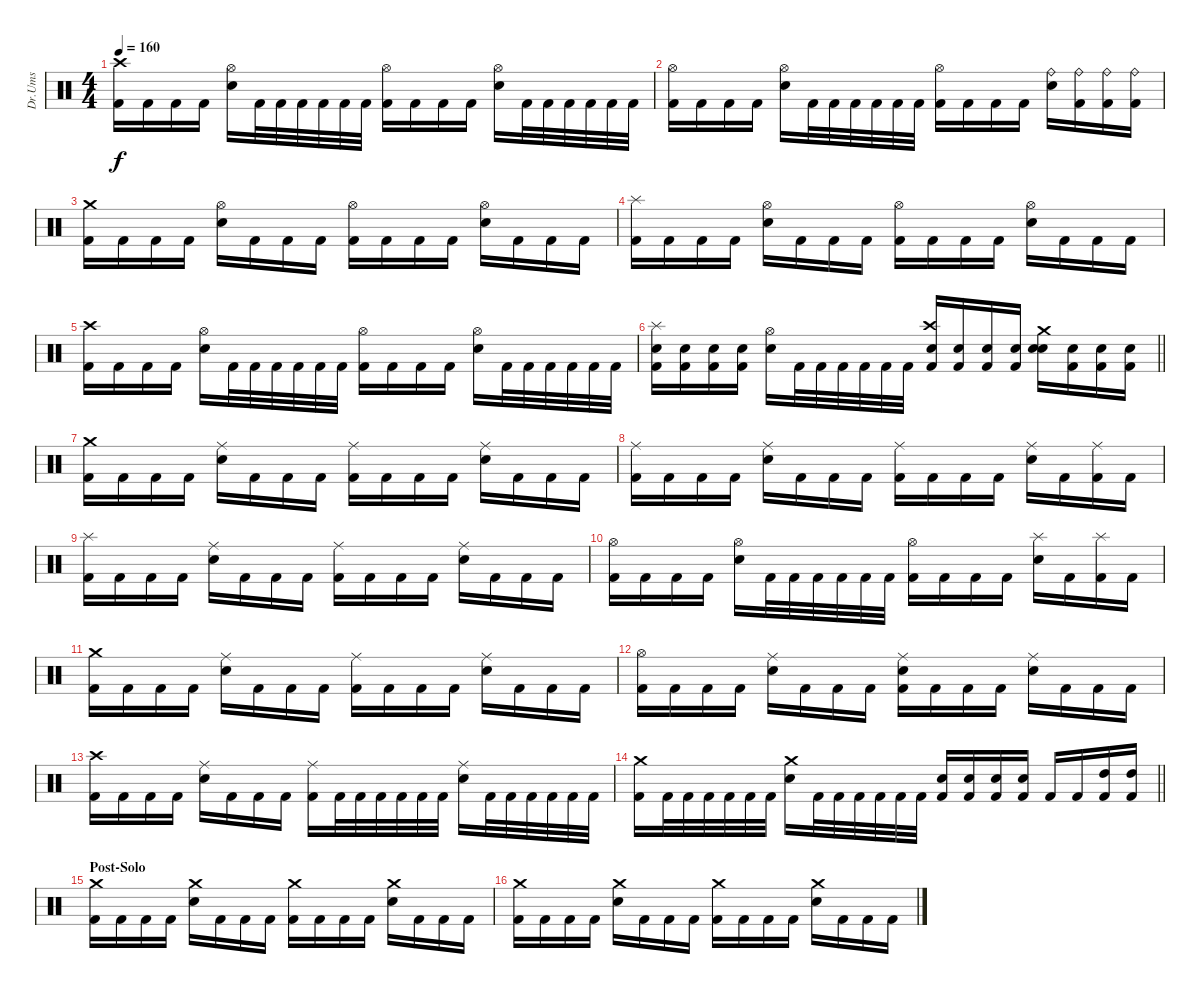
\track ("Dr.Ums" "Dr.Ums") {instrument percussion}
\staff {score}
\articulation defaults
\ts (4 4)
\tempo 160
\clef neutral
\ks c
("Kick (hit) 2" "Crash high (hit)").16{dy f} "Kick (hit) 2".16 "Kick (hit) 2".16 "Kick (hit) 2".16 ("Snare (hit) 2" "Hi-Hat (open)").16 "Kick (hit) 2".32 "Kick (hit) 2".32 "Kick (hit) 2".32 "Kick (hit) 2".32 "Kick (hit) 2".32 "Kick (hit) 2".32 ("Kick (hit) 2" "Hi-Hat (open)").16 "Kick (hit) 2".16 "Kick (hit) 2".16 "Kick (hit) 2".16 ("Snare (hit) 2" "Hi-Hat (open)").16 "Kick (hit) 2".32 "Kick (hit) 2".32 "Kick (hit) 2".32 "Kick (hit) 2".32 "Kick (hit) 2".32 "Kick (hit) 2".32 |
("Kick (hit) 2" "Hi-Hat (open)").16 "Kick (hit) 2".16 "Kick (hit) 2".16 "Kick (hit) 2".16 ("Snare (hit) 2" "Hi-Hat (open)").16 "Kick (hit) 2".32 "Kick (hit) 2".32 "Kick (hit) 2".32 "Kick (hit) 2".32 "Kick (hit) 2".32 "Kick (hit) 2".32 ("Kick (hit) 2" "Hi-Hat (open)").16 "Kick (hit) 2".16 "Kick (hit) 2".16 "Kick (hit) 2".16 ("Snare (hit) 2" "Ride (bell)").16 ("Kick (hit) 2" "Ride (bell)").16 ("Kick (hit) 2" "Ride (bell)").16 ("Kick (hit) 2" "Ride (bell)").16 |
("Kick (hit) 2" "Crash medium (hit)").16 "Kick (hit) 2".16 "Kick (hit) 2".16 "Kick (hit) 2".16 ("Snare (hit) 2" "Hi-Hat (open)").16 "Kick (hit) 2".16 "Kick (hit) 2".16 "Kick (hit) 2".16 ("Kick (hit) 2" "Hi-Hat (open)").16 "Kick (hit) 2".16 "Kick (hit) 2".16 "Kick (hit) 2".16 ("Snare (hit) 2" "Hi-Hat (open)").16 "Kick (hit) 2".16 "Kick (hit) 2".16 "Kick (hit) 2".16 |
("Kick (hit) 2" "Splash (hit)").16 "Kick (hit) 2".16 "Kick (hit) 2".16 "Kick (hit) 2".16 ("Snare (hit) 2" "Hi-Hat (open)").16 "Kick (hit) 2".16 "Kick (hit) 2".16 "Kick (hit) 2".16 ("Kick (hit) 2" "Hi-Hat (open)").16 "Kick (hit) 2".16 "Kick (hit) 2".16 "Kick (hit) 2".16 ("Snare (hit) 2" "Hi-Hat (open)").16 "Kick (hit) 2".16 "Kick (hit) 2".16 "Kick (hit) 2".16 |
("Kick (hit) 2" "Crash high (hit)").16 "Kick (hit) 2".16 "Kick (hit) 2".16 "Kick (hit) 2".16 ("Snare (hit) 2" "Hi-Hat (open)").16 "Kick (hit) 2".32 "Kick (hit) 2".32 "Kick (hit) 2".32 "Kick (hit) 2".32 "Kick (hit) 2".32 "Kick (hit) 2".32 ("Kick (hit) 2" "Hi-Hat (open)").16 "Kick (hit) 2".16 "Kick (hit) 2".16 "Kick (hit) 2".16 ("Snare (hit) 2" "Hi-Hat (open)").16 "Kick (hit) 2".32 "Kick (hit) 2".32 "Kick (hit) 2".32 "Kick (hit) 2".32 "Kick (hit) 2".32 "Kick (hit) 2".32 |
\barLineRight lightlight
("Kick (hit) 2" "Splash (hit)" "Snare (hit) 2").16 ("Kick (hit) 2" "Snare (hit) 2").16 ("Kick (hit) 2" "Snare (hit) 2").16 ("Kick (hit) 2" "Snare (hit) 2").16 ("Snare (hit) 2" "Hi-Hat (open)").16 "Kick (hit) 2".32 "Kick (hit) 2".32 "Kick (hit) 2".32 "Kick (hit) 2".32 "Kick (hit) 2".32 "Kick (hit) 2".32 ("Kick (hit) 2" "Snare (hit) 2" "Crash high (hit)").16 ("Kick (hit) 2" "Snare (hit) 2").16 ("Kick (hit) 2" "Snare (hit) 2").16 ("Kick (hit) 2" "Snare (hit) 2").16 ("Snare (hit) 2" "Snare (hit) 2" "Crash medium (hit)").16 ("Kick (hit) 2" "Snare (hit) 2").16 ("Kick (hit) 2" "Snare (hit) 2").16 ("Kick (hit) 2" "Snare (hit) 2").16 |
("Kick (hit) 2" "Crash medium (hit)").16 "Kick (hit) 2".16 "Kick (hit) 2".16 "Kick (hit) 2".16 ("Snare (hit) 2" "Ride (middle)").16 "Kick (hit) 2".16 "Kick (hit) 2".16 "Kick (hit) 2".16 ("Kick (hit) 2" "Ride (middle)").16 "Kick (hit) 2".16 "Kick (hit) 2".16 "Kick (hit) 2".16 ("Snare (hit) 2" "Ride (middle)").16 "Kick (hit) 2".16 "Kick (hit) 2".16 "Kick (hit) 2".16 |
("Kick (hit) 2" "Ride (middle)").16 "Kick (hit) 2".16 "Kick (hit) 2".16 "Kick (hit) 2".16 ("Snare (hit) 2" "Ride (middle)").16 "Kick (hit) 2".16 "Kick (hit) 2".16 "Kick (hit) 2".16 ("Kick (hit) 2" "Ride (middle)").16 "Kick (hit) 2".16 "Kick (hit) 2".16 "Kick (hit) 2".16 ("Snare (hit) 2" "Ride (middle)").16 "Kick (hit) 2".16 ("Kick (hit) 2" "Ride (middle)").16 "Kick (hit) 2".16 |
("Kick (hit) 2" "Splash (hit)").16 "Kick (hit) 2".16 "Kick (hit) 2".16 "Kick (hit) 2".16 ("Snare (hit) 2" "Ride (middle)").16 "Kick (hit) 2".16 "Kick (hit) 2".16 "Kick (hit) 2".16 ("Kick (hit) 2" "Ride (middle)").16 "Kick (hit) 2".16 "Kick (hit) 2".16 "Kick (hit) 2".16 ("Snare (hit) 2" "Ride (middle)").16 "Kick (hit) 2".16 "Kick (hit) 2".16 "Kick (hit) 2".16 |
("Kick (hit) 2" "Hi-Hat (open)").16 "Kick (hit) 2".16 "Kick (hit) 2".16 "Kick (hit) 2".16 ("Snare (hit) 2" "Hi-Hat (open)").16 "Kick (hit) 2".32 "Kick (hit) 2".32 "Kick (hit) 2".32 "Kick (hit) 2".32 "Kick (hit) 2".32 "Kick (hit) 2".32 ("Kick (hit) 2" "Hi-Hat (open)").16 "Kick (hit) 2".16 "Kick (hit) 2".16 "Kick (hit) 2".16 ("Snare (hit) 2" "Splash (hit)").16 "Kick (hit) 2".16 ("Kick (hit) 2" "Splash (hit)").16 "Kick (hit) 2".16 |
("Kick (hit) 2" "Crash medium (hit)").16 "Kick (hit) 2".16 "Kick (hit) 2".16 "Kick (hit) 2".16 ("Snare (hit) 2" "Ride (middle)").16 "Kick (hit) 2".16 "Kick (hit) 2".16 "Kick (hit) 2".16 ("Kick (hit) 2" "Ride (middle)").16 "Kick (hit) 2".16 "Kick (hit) 2".16 "Kick (hit) 2".16 ("Snare (hit) 2" "Ride (middle)").16 "Kick (hit) 2".16 "Kick (hit) 2".16 "Kick (hit) 2".16 |
("Kick (hit) 2" "Hi-Hat (open)").16 "Kick (hit) 2".16 "Kick (hit) 2".16 "Kick (hit) 2".16 ("Snare (hit) 2" "Ride (middle)").16 "Kick (hit) 2".16 "Kick (hit) 2".16 "Kick (hit) 2".16 ("Kick (hit) 2" "Ride (middle)" "Snare (hit)").16 "Kick (hit) 2".16 "Kick (hit) 2".16 "Kick (hit) 2".16 ("Snare (hit) 2" "Ride (middle)").16 "Kick (hit) 2".16 "Kick (hit) 2".16 "Kick (hit) 2".16 |
("Kick (hit) 2" "Crash high (hit)").16 "Kick (hit) 2".16 "Kick (hit) 2".16 "Kick (hit) 2".16 ("Snare (hit) 2" "Ride (middle)").16 "Kick (hit) 2".16 "Kick (hit) 2".16 "Kick (hit) 2".16 ("Kick (hit) 2" "Ride (middle)").16 "Kick (hit) 2".32 "Kick (hit) 2".32 "Kick (hit) 2".32 "Kick (hit) 2".32 "Kick (hit) 2".32 "Kick (hit) 2".32 ("Snare (hit) 2" "Ride (middle)").16 "Kick (hit) 2".32 "Kick (hit) 2".32 "Kick (hit) 2".32 "Kick (hit) 2".32 "Kick (hit) 2".32 "Kick (hit) 2".32 |
\barLineRight lightlight
("Kick (hit) 2" "Crash medium (hit)").16 "Kick (hit) 2".32 "Kick (hit) 2".32 "Kick (hit) 2".32 "Kick (hit) 2".32 "Kick (hit) 2".32 "Kick (hit) 2".32 ("Snare (hit) 2" "Crash medium (hit)").16 "Kick (hit) 2".32 "Kick (hit) 2".32 "Kick (hit) 2".32 "Kick (hit) 2".32 "Kick (hit) 2".32 "Kick (hit) 2".32 ("Snare (hit) 2" "Kick (hit) 2").16 ("Snare (hit) 2" "Kick (hit) 2").16 ("Snare (hit) 2" "Kick (hit) 2").16 ("Snare (hit) 2" "Kick (hit) 2").16 "Kick (hit) 2".16 "Kick (hit) 2".16 ("High Tom (hit)" "Kick (hit) 2").16 ("High Tom (hit)" "Kick (hit) 2").16 |
\section ("" "Post-Solo")
("Kick (hit) 2" "Crash medium (hit)").16 "Kick (hit) 2".16 "Kick (hit) 2".16 "Kick (hit) 2".16 ("Snare (hit) 2" "Crash medium (hit)").16 "Kick (hit) 2".16 "Kick (hit) 2".16 "Kick (hit) 2".16 ("Kick (hit) 2" "Crash medium (hit)").16 "Kick (hit) 2".16 "Kick (hit) 2".16 "Kick (hit) 2".16 ("Snare (hit) 2" "Crash medium (hit)").16 "Kick (hit) 2".16 "Kick (hit) 2".16 "Kick (hit) 2".16 |
("Kick (hit) 2" "Crash medium (hit)").16 "Kick (hit) 2".16 "Kick (hit) 2".16 "Kick (hit) 2".16 ("Snare (hit) 2" "Crash medium (hit)").16 "Kick (hit) 2".16 "Kick (hit) 2".16 "Kick (hit) 2".16 ("Kick (hit) 2" "Crash medium (hit)").16 "Kick (hit) 2".16 "Kick (hit) 2".16 "Kick (hit) 2".16 ("Snare (hit) 2" "Crash medium (hit)").16 "Kick (hit) 2".16 "Kick (hit) 2".16 "Kick (hit) 2".16
